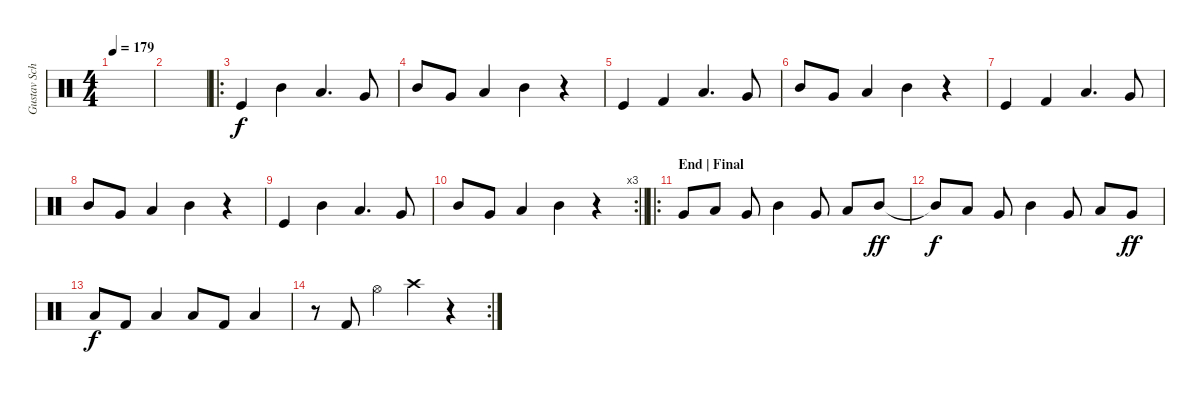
\track ("Gustav Schäfer" "Gustav Sch") {instrument percussion}
\staff {score}
\articulation defaults
\ts (4 4)
\tempo 179
\clef neutral
\ks c
|
|
\ro "Kick (hit)".4{dy f} "Mid Tom (hit)".4 "Low Tom (hit)".4{d} "Very Low Tom (hit)".8
|
"Mid Tom (hit)".8 "Very Low Tom (hit)".8 "Low Tom (hit)".4 "Mid Tom (hit)".4 r.4 |
"Kick (hit)".4 "Kick (hit) 2".4 "Low Tom (hit)".4{d} "Very Low Tom (hit)".8 |
"Mid Tom (hit)".8 "Very Low Tom (hit)".8 "Low Tom (hit)".4 "Mid Tom (hit)".4 r.4 |
"Kick (hit)".4 "Kick (hit) 2".4 "Low Tom (hit)".4{d} "Very Low Tom (hit)".8 |
"Mid Tom (hit)".8 "Very Low Tom (hit)".8 "Low Tom (hit)".4 "Mid Tom (hit)".4 r.4 |
"Kick (hit)".4 "Mid Tom (hit)".4 "Low Tom (hit)".4{d} "Very Low Tom (hit)".8 |
\rc 3
\barLineRight lightlight "Mid Tom (hit)".8 "Very Low Tom (hit)".8 "Low Tom (hit)".4 "Mid Tom (hit)".4
r.4 |
\ro
\section ("" "End | Final")
"Very Low Tom (hit)".8 "Low Tom (hit)".8 "Very Low Tom (hit)".8 "Mid Tom (hit)".4 "Very Low Tom (hit)".8 "Low Tom (hit)".8 "Mid Tom (hit)".8{dy ff} |
"Mid Tom (hit)"{t}.8{dy f} "Low Tom (hit)".8 "Very Low Tom (hit)".8 "Mid Tom (hit)".4 "Very Low Tom (hit)".8 "Low Tom (hit)".8 "Very Low Tom (hit)".8{dy ff} |
"Low Tom (hit)".8{dy f} "Kick (hit) 2".8 "Low Tom (hit)".4 "Low Floor Tom (hit)".8 "Kick (hit) 2".8 "Low Tom (hit)".4 |
\rc 2
r.8 "Kick (hit) 2".8 "Hi-Hat (open)".4 "Crash high (hit)".4 r.4
